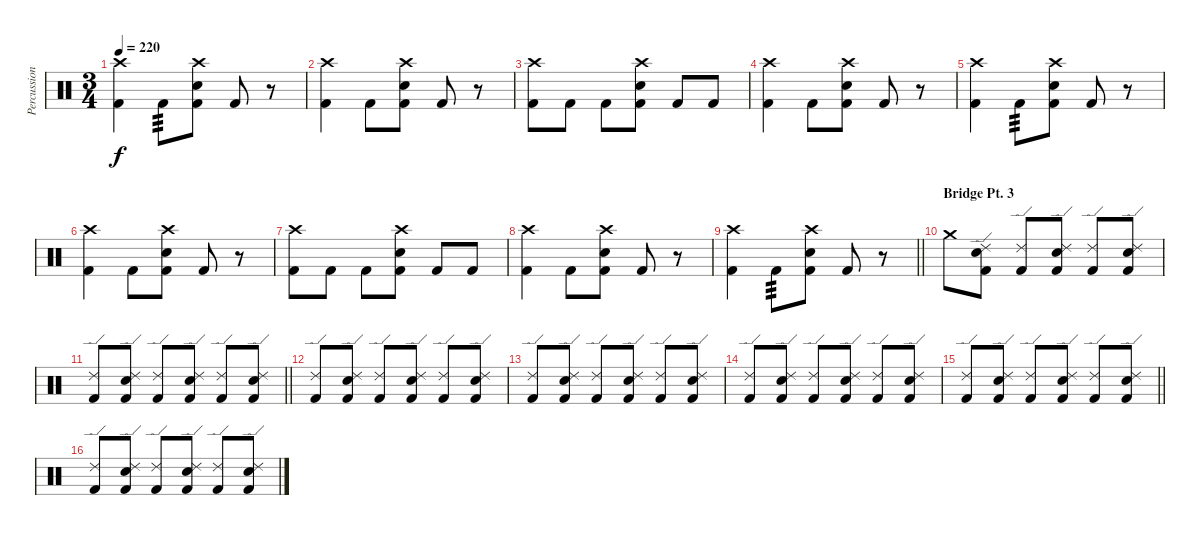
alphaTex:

\track ("Percussion" "Percussion") {instrument percussion}
\staff {score}
\articulation defaults
\ts (3 4)
\tempo 220
\clef neutral
\ks c
("Crash high (hit)" "Kick (hit) 2").4{dy f} "Kick (hit) 2".8{tp 3} ("Crash high (hit)" "Electric Snare (hit)" "Kick (hit) 2").8 "Kick (hit) 2".8 r.8 |
("Crash high (hit)" "Kick (hit) 2").4 "Kick (hit) 2".8 ("Crash high (hit)" "Electric Snare (hit)" "Kick (hit) 2").8 "Kick (hit) 2".8 r.8 |
("Crash high (hit)" "Kick (hit) 2").8 "Kick (hit) 2".8 "Kick (hit) 2".8 ("Crash high (hit)" "Electric Snare (hit)" "Kick (hit) 2").8 "Kick (hit) 2".8 "Kick (hit) 2".8 |
("Crash high (hit)" "Kick (hit) 2").4 "Kick (hit) 2".8 ("Crash high (hit)" "Electric Snare (hit)" "Kick (hit) 2").8 "Kick (hit) 2".8 r.8 |
("Crash high (hit)" "Kick (hit) 2").4 "Kick (hit) 2".8{tp 3} ("Crash high (hit)" "Electric Snare (hit)" "Kick (hit) 2").8 "Kick (hit) 2".8 r.8 |
("Crash high (hit)" "Kick (hit) 2").4 "Kick (hit) 2".8 ("Crash high (hit)" "Electric Snare (hit)" "Kick (hit) 2").8 "Kick (hit) 2".8 r.8 |
("Crash high (hit)" "Kick (hit) 2").8 "Kick (hit) 2".8 "Kick (hit) 2".8 ("Crash high (hit)" "Electric Snare (hit)" "Kick (hit) 2").8 "Kick (hit) 2".8 "Kick (hit) 2".8 |
("Crash high (hit)" "Kick (hit) 2").4 "Kick (hit) 2".8 ("Crash high (hit)" "Electric Snare (hit)" "Kick (hit) 2").8 "Kick (hit) 2".8 r.8 |
\barLineRight lightlight
("Crash high (hit)" "Kick (hit) 2").4 "Kick (hit) 2".8{tp 3} ("Crash high (hit)" "Electric Snare (hit)" "Kick (hit) 2").8 "Kick (hit) 2".8 r.8 |
\section ("" "Bridge Pt. 3")
"Crash medium (hit)".8 ("Ride (edge) 2" "Electric Snare (hit)" "Kick (hit) 2").8 ("Ride (edge) 2" "Kick (hit) 2").8 ("Ride (edge) 2" "Electric Snare (hit)" "Kick (hit) 2").8 ("Ride (edge) 2" "Kick (hit) 2").8 ("Ride (edge) 2" "Electric Snare (hit)" "Kick (hit) 2").8 |
\barLineRight lightlight
("Ride (edge) 2" "Kick (hit) 2").8 ("Ride (edge) 2" "Electric Snare (hit)" "Kick (hit) 2").8 ("Ride (edge) 2" "Kick (hit) 2").8 ("Ride (edge) 2" "Electric Snare (hit)" "Kick (hit) 2").8 ("Ride (edge) 2" "Kick (hit) 2").8 ("Ride (edge) 2" "Electric Snare (hit)" "Kick (hit) 2").8 |
("Ride (edge) 2" "Kick (hit) 2").8 ("Ride (edge) 2" "Electric Snare (hit)" "Kick (hit) 2").8 ("Ride (edge) 2" "Kick (hit) 2").8 ("Ride (edge) 2" "Electric Snare (hit)" "Kick (hit) 2").8 ("Ride (edge) 2" "Kick (hit) 2").8 ("Ride (edge) 2" "Electric Snare (hit)" "Kick (hit) 2").8 |
("Ride (edge) 2" "Kick (hit) 2").8 ("Ride (edge) 2" "Electric Snare (hit)" "Kick (hit) 2").8 ("Ride (edge) 2" "Kick (hit) 2").8 ("Ride (edge) 2" "Electric Snare (hit)" "Kick (hit) 2").8 ("Ride (edge) 2" "Kick (hit) 2").8 ("Ride (edge) 2" "Electric Snare (hit)" "Kick (hit) 2").8 |
("Ride (edge) 2" "Kick (hit) 2").8 ("Ride (edge) 2" "Electric Snare (hit)" "Kick (hit) 2").8 ("Ride (edge) 2" "Kick (hit) 2").8 ("Ride (edge) 2" "Electric Snare (hit)" "Kick (hit) 2").8 ("Ride (edge) 2" "Kick (hit) 2").8 ("Ride (edge) 2" "Electric Snare (hit)" "Kick (hit) 2").8 |
\barLineRight lightlight
("Ride (edge) 2" "Kick (hit) 2").8 ("Ride (edge) 2" "Electric Snare (hit)" "Kick (hit) 2").8 ("Ride (edge) 2" "Kick (hit) 2").8 ("Ride (edge) 2" "Electric Snare (hit)" "Kick (hit) 2").8 ("Ride (edge) 2" "Kick (hit) 2").8 ("Ride (edge) 2" "Electric Snare (hit)" "Kick (hit) 2").8 |
("Ride (edge) 2" "Kick (hit) 2").8 ("Ride (edge) 2" "Electric Snare (hit)" "Kick (hit) 2").8 ("Ride (edge) 2" "Kick (hit) 2").8 ("Ride (edge) 2" "Electric Snare (hit)" "Kick (hit) 2").8 ("Ride (edge) 2" "Kick (hit) 2").8 ("Ride (edge) 2" "Electric Snare (hit)" "Kick (hit) 2").8
